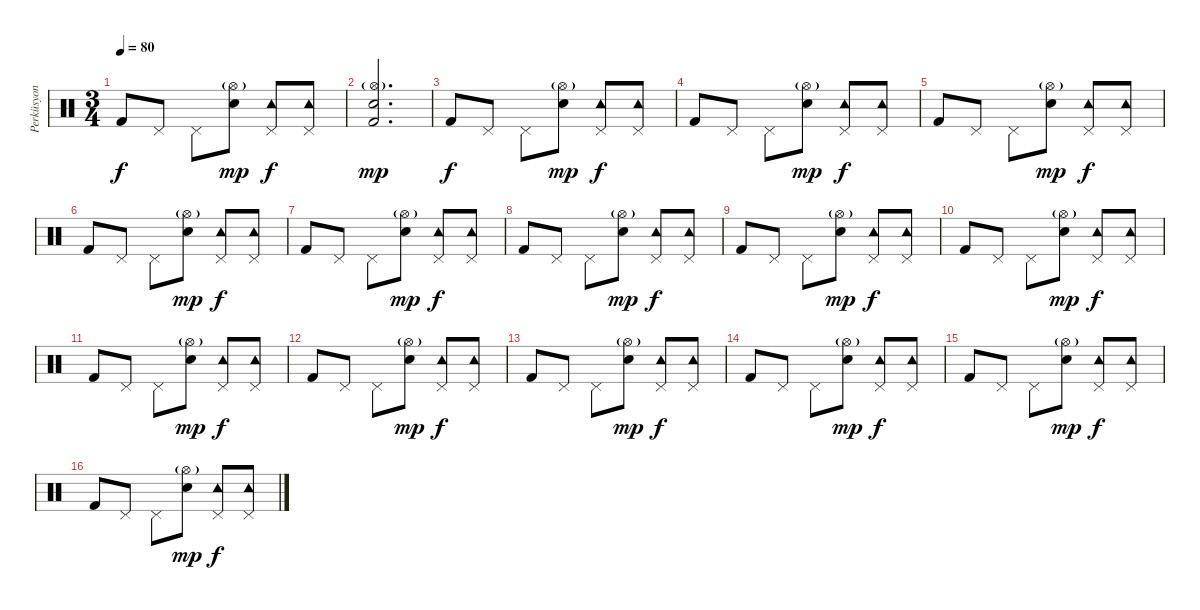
\track ("Perküsyon" "Perküsyon") {instrument percussion}
\staff {score}
\articulation defaults
\ts (3 4)
\tempo 80
\clef neutral
\ks c "Kick (hit) 2".8{dy f} "Pedal Hi-Hat (hit)".8 "Pedal Hi-Hat (hit)".8
("Hi-Hat (open)"{g} "Snare (hit) 2").8{dy mp} ("Tambourine (hit)" "Pedal Hi-Hat (hit)").8{dy f} ("Tambourine (hit)" "Pedal Hi-Hat (hit)").8 |
("Hi-Hat (open)"{g} "Snare (hit) 2" "Kick (hit) 2").2{d dy mp} |
"Kick (hit) 2".8{dy f} "Pedal Hi-Hat (hit)".8 "Pedal Hi-Hat (hit)".8 ("Hi-Hat (open)"{g} "Snare (hit) 2").8{dy mp} ("Tambourine (hit)" "Pedal Hi-Hat (hit)").8{dy f} ("Tambourine (hit)" "Pedal Hi-Hat (hit)").8 |
"Kick (hit) 2".8 "Pedal Hi-Hat (hit)".8 "Pedal Hi-Hat (hit)".8 ("Hi-Hat (open)"{g} "Snare (hit) 2").8{dy mp} ("Tambourine (hit)" "Pedal Hi-Hat (hit)").8{dy f} ("Tambourine (hit)" "Pedal Hi-Hat (hit)").8 |
"Kick (hit) 2".8 "Pedal Hi-Hat (hit)".8 "Pedal Hi-Hat (hit)".8 ("Hi-Hat (open)"{g} "Snare (hit) 2").8{dy mp} ("Tambourine (hit)" "Pedal Hi-Hat (hit)").8{dy f} ("Tambourine (hit)" "Pedal Hi-Hat (hit)").8 |
"Kick (hit) 2".8 "Pedal Hi-Hat (hit)".8 "Pedal Hi-Hat (hit)".8 ("Hi-Hat (open)"{g} "Snare (hit) 2").8{dy mp} ("Tambourine (hit)" "Pedal Hi-Hat (hit)").8{dy f} ("Tambourine (hit)" "Pedal Hi-Hat (hit)").8 |
"Kick (hit) 2".8 "Pedal Hi-Hat (hit)".8 "Pedal Hi-Hat (hit)".8 ("Hi-Hat (open)"{g} "Snare (hit) 2").8{dy mp} ("Tambourine (hit)" "Pedal Hi-Hat (hit)").8{dy f} ("Tambourine (hit)" "Pedal Hi-Hat (hit)").8 |
"Kick (hit) 2".8 "Pedal Hi-Hat (hit)".8 "Pedal Hi-Hat (hit)".8 ("Hi-Hat (open)"{g} "Snare (hit) 2").8{dy mp} ("Tambourine (hit)" "Pedal Hi-Hat (hit)").8{dy f} ("Tambourine (hit)" "Pedal Hi-Hat (hit)").8 |
"Kick (hit) 2".8 "Pedal Hi-Hat (hit)".8 "Pedal Hi-Hat (hit)".8 ("Hi-Hat (open)"{g} "Snare (hit) 2").8{dy mp} ("Tambourine (hit)" "Pedal Hi-Hat (hit)").8{dy f} ("Tambourine (hit)" "Pedal Hi-Hat (hit)").8 |
"Kick (hit) 2".8 "Pedal Hi-Hat (hit)".8 "Pedal Hi-Hat (hit)".8 ("Hi-Hat (open)"{g} "Snare (hit) 2").8{dy mp} ("Tambourine (hit)" "Pedal Hi-Hat (hit)").8{dy f} ("Tambourine (hit)" "Pedal Hi-Hat (hit)").8 |
"Kick (hit) 2".8 "Pedal Hi-Hat (hit)".8 "Pedal Hi-Hat (hit)".8 ("Hi-Hat (open)"{g} "Snare (hit) 2").8{dy mp} ("Tambourine (hit)" "Pedal Hi-Hat (hit)").8{dy f} ("Tambourine (hit)" "Pedal Hi-Hat (hit)").8 |
"Kick (hit) 2".8 "Pedal Hi-Hat (hit)".8 "Pedal Hi-Hat (hit)".8 ("Hi-Hat (open)"{g} "Snare (hit) 2").8{dy mp} ("Tambourine (hit)" "Pedal Hi-Hat (hit)").8{dy f} ("Tambourine (hit)" "Pedal Hi-Hat (hit)").8 |
"Kick (hit) 2".8 "Pedal Hi-Hat (hit)".8 "Pedal Hi-Hat (hit)".8 ("Hi-Hat (open)"{g} "Snare (hit) 2").8{dy mp} ("Tambourine (hit)" "Pedal Hi-Hat (hit)").8{dy f} ("Tambourine (hit)" "Pedal Hi-Hat (hit)").8 |
"Kick (hit) 2".8 "Pedal Hi-Hat (hit)".8 "Pedal Hi-Hat (hit)".8 ("Hi-Hat (open)"{g} "Snare (hit) 2").8{dy mp} ("Tambourine (hit)" "Pedal Hi-Hat (hit)").8{dy f} ("Tambourine (hit)" "Pedal Hi-Hat (hit)").8 |
"Kick (hit) 2".8 "Pedal Hi-Hat (hit)".8 "Pedal Hi-Hat (hit)".8 ("Hi-Hat (open)"{g} "Snare (hit) 2").8{dy mp} ("Tambourine (hit)" "Pedal Hi-Hat (hit)").8{dy f} ("Tambourine (hit)" "Pedal Hi-Hat (hit)").8 |
"Kick (hit) 2".8 "Pedal Hi-Hat (hit)".8 "Pedal Hi-Hat (hit)".8 ("Hi-Hat (open)"{g} "Snare (hit) 2").8{dy mp} ("Tambourine (hit)" "Pedal Hi-Hat (hit)").8{dy f} ("Tambourine (hit)" "Pedal Hi-Hat (hit)").8
